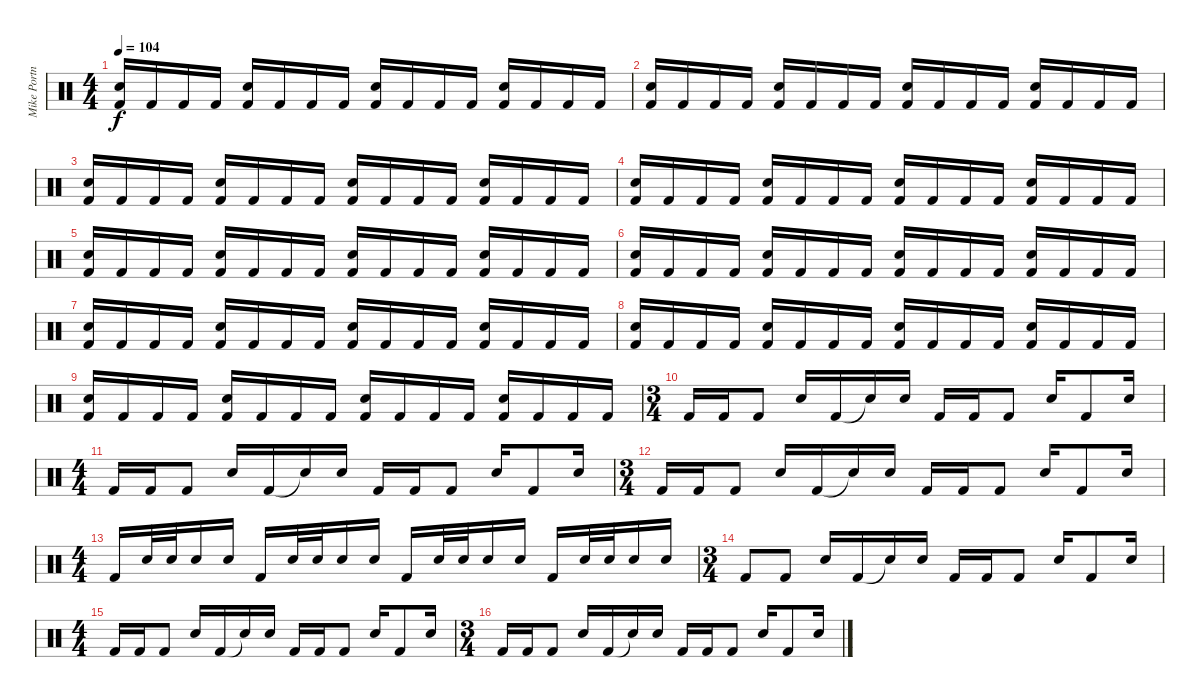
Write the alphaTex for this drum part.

\track ("Mike Portnoy" "Mike Portn") {instrument percussion}
\staff {score}
\articulation defaults
\ts (4 4)
\tempo 104
\clef neutral
\ks c
("Snare (hit) 2" "Kick (hit) 2").16{dy f} "Kick (hit) 2".16 "Kick (hit) 2".16 "Kick (hit) 2".16 ("Snare (hit) 2" "Kick (hit) 2").16 "Kick (hit) 2".16 "Kick (hit) 2".16 "Kick (hit) 2".16 ("Snare (hit) 2" "Kick (hit) 2").16 "Kick (hit) 2".16 "Kick (hit) 2".16 "Kick (hit) 2".16 ("Snare (hit) 2" "Kick (hit) 2").16 "Kick (hit) 2".16 "Kick (hit) 2".16 "Kick (hit) 2".16 |
("Snare (hit) 2" "Kick (hit) 2").16 "Kick (hit) 2".16 "Kick (hit) 2".16 "Kick (hit) 2".16 ("Snare (hit) 2" "Kick (hit) 2").16 "Kick (hit) 2".16 "Kick (hit) 2".16 "Kick (hit) 2".16 ("Snare (hit) 2" "Kick (hit) 2").16 "Kick (hit) 2".16 "Kick (hit) 2".16 "Kick (hit) 2".16 ("Snare (hit) 2" "Kick (hit) 2").16 "Kick (hit) 2".16 "Kick (hit) 2".16 "Kick (hit) 2".16 |
("Snare (hit) 2" "Kick (hit) 2").16 "Kick (hit) 2".16 "Kick (hit) 2".16 "Kick (hit) 2".16 ("Snare (hit) 2" "Kick (hit) 2").16 "Kick (hit) 2".16 "Kick (hit) 2".16 "Kick (hit) 2".16 ("Snare (hit) 2" "Kick (hit) 2").16 "Kick (hit) 2".16 "Kick (hit) 2".16 "Kick (hit) 2".16 ("Snare (hit) 2" "Kick (hit) 2").16 "Kick (hit) 2".16 "Kick (hit) 2".16 "Kick (hit) 2".16 |
("Snare (hit) 2" "Kick (hit) 2").16 "Kick (hit) 2".16 "Kick (hit) 2".16 "Kick (hit) 2".16 ("Snare (hit) 2" "Kick (hit) 2").16 "Kick (hit) 2".16 "Kick (hit) 2".16 "Kick (hit) 2".16 ("Snare (hit) 2" "Kick (hit) 2").16 "Kick (hit) 2".16 "Kick (hit) 2".16 "Kick (hit) 2".16 ("Snare (hit) 2" "Kick (hit) 2").16 "Kick (hit) 2".16 "Kick (hit) 2".16 "Kick (hit) 2".16 |
("Snare (hit) 2" "Kick (hit) 2").16 "Kick (hit) 2".16 "Kick (hit) 2".16 "Kick (hit) 2".16 ("Snare (hit) 2" "Kick (hit) 2").16 "Kick (hit) 2".16 "Kick (hit) 2".16 "Kick (hit) 2".16 ("Snare (hit) 2" "Kick (hit) 2").16 "Kick (hit) 2".16 "Kick (hit) 2".16 "Kick (hit) 2".16 ("Snare (hit) 2" "Kick (hit) 2").16 "Kick (hit) 2".16 "Kick (hit) 2".16 "Kick (hit) 2".16 |
("Snare (hit) 2" "Kick (hit) 2").16 "Kick (hit) 2".16 "Kick (hit) 2".16 "Kick (hit) 2".16 ("Snare (hit) 2" "Kick (hit) 2").16 "Kick (hit) 2".16 "Kick (hit) 2".16 "Kick (hit) 2".16 ("Snare (hit) 2" "Kick (hit) 2").16 "Kick (hit) 2".16 "Kick (hit) 2".16 "Kick (hit) 2".16 ("Snare (hit) 2" "Kick (hit) 2").16 "Kick (hit) 2".16 "Kick (hit) 2".16 "Kick (hit) 2".16 |
("Snare (hit) 2" "Kick (hit) 2").16 "Kick (hit) 2".16 "Kick (hit) 2".16 "Kick (hit) 2".16 ("Snare (hit) 2" "Kick (hit) 2").16 "Kick (hit) 2".16 "Kick (hit) 2".16 "Kick (hit) 2".16 ("Snare (hit) 2" "Kick (hit) 2").16 "Kick (hit) 2".16 "Kick (hit) 2".16 "Kick (hit) 2".16 ("Snare (hit) 2" "Kick (hit) 2").16 "Kick (hit) 2".16 "Kick (hit) 2".16 "Kick (hit) 2".16 |
("Snare (hit) 2" "Kick (hit) 2").16 "Kick (hit) 2".16 "Kick (hit) 2".16 "Kick (hit) 2".16 ("Snare (hit) 2" "Kick (hit) 2").16 "Kick (hit) 2".16 "Kick (hit) 2".16 "Kick (hit) 2".16 ("Snare (hit) 2" "Kick (hit) 2").16 "Kick (hit) 2".16 "Kick (hit) 2".16 "Kick (hit) 2".16 ("Snare (hit) 2" "Kick (hit) 2").16 "Kick (hit) 2".16 "Kick (hit) 2".16 "Kick (hit) 2".16 |
("Snare (hit) 2" "Kick (hit) 2").16 "Kick (hit) 2".16 "Kick (hit) 2".16 "Kick (hit) 2".16 ("Snare (hit) 2" "Kick (hit) 2").16 "Kick (hit) 2".16 "Kick (hit) 2".16 "Kick (hit) 2".16 ("Snare (hit) 2" "Kick (hit) 2").16 "Kick (hit) 2".16 "Kick (hit) 2".16 "Kick (hit) 2".16 ("Snare (hit) 2" "Kick (hit) 2").16 "Kick (hit) 2".16 "Kick (hit) 2".16 "Kick (hit) 2".16 |
\ts (3 4)
"Kick (hit) 2".16 "Kick (hit) 2".16 "Kick (hit) 2".8 "Snare (hit) 2".16 "Kick (hit) 2".16 "Snare (hit)"{t}.16 "Snare (hit) 2".16 "Kick (hit) 2".16 "Kick (hit) 2".16 "Kick (hit) 2".8 "Snare (hit) 2".16 "Kick (hit) 2".8 "Snare (hit) 2".16 |
\ts (4 4)
"Kick (hit) 2".16 "Kick (hit) 2".16 "Kick (hit) 2".8 "Snare (hit) 2".16 "Kick (hit) 2".16 "Snare (hit)"{t}.16 "Snare (hit) 2".16 "Kick (hit) 2".16 "Kick (hit) 2".16 "Kick (hit) 2".8 "Snare (hit) 2".16 "Kick (hit) 2".8 "Snare (hit) 2".16 |
\ts (3 4)
"Kick (hit) 2".16 "Kick (hit) 2".16 "Kick (hit) 2".8 "Snare (hit) 2".16 "Kick (hit) 2".16 "Snare (hit)"{t}.16 "Snare (hit) 2".16 "Kick (hit) 2".16 "Kick (hit) 2".16 "Kick (hit) 2".8 "Snare (hit) 2".16 "Kick (hit) 2".8 "Snare (hit) 2".16 |
\ts (4 4)
"Kick (hit) 2".16 "Snare (hit) 2".32 "Snare (hit) 2".32 "Snare (hit) 2".16 "Snare (hit) 2".16 "Kick (hit) 2".16 "Snare (hit) 2".32 "Snare (hit) 2".32 "Snare (hit) 2".16 "Snare (hit) 2".16 "Kick (hit) 2".16 "Snare (hit) 2".32 "Snare (hit) 2".32 "Snare (hit) 2".16 "Snare (hit) 2".16 "Kick (hit) 2".16 "Snare (hit) 2".32 "Snare (hit) 2".32 "Snare (hit) 2".16 "Snare (hit) 2".16 |
\ts (3 4)
"Kick (hit) 2".8 "Kick (hit) 2".8 "Snare (hit) 2".16 "Kick (hit) 2".16 "Snare (hit)"{t}.16 "Snare (hit) 2".16 "Kick (hit) 2".16 "Kick (hit) 2".16 "Kick (hit) 2".8 "Snare (hit) 2".16 "Kick (hit) 2".8 "Snare (hit) 2".16 |
\ts (4 4)
"Kick (hit) 2".16 "Kick (hit) 2".16 "Kick (hit) 2".8 "Snare (hit) 2".16 "Kick (hit) 2".16 "Snare (hit)"{t}.16 "Snare (hit) 2".16 "Kick (hit) 2".16 "Kick (hit) 2".16 "Kick (hit) 2".8 "Snare (hit) 2".16 "Kick (hit) 2".8 "Snare (hit) 2".16 |
\ts (3 4)
"Kick (hit) 2".16 "Kick (hit) 2".16 "Kick (hit) 2".8 "Snare (hit) 2".16 "Kick (hit) 2".16 "Snare (hit)"{t}.16 "Snare (hit) 2".16 "Kick (hit) 2".16 "Kick (hit) 2".16 "Kick (hit) 2".8 "Snare (hit) 2".16 "Kick (hit) 2".8 "Snare (hit) 2".16
